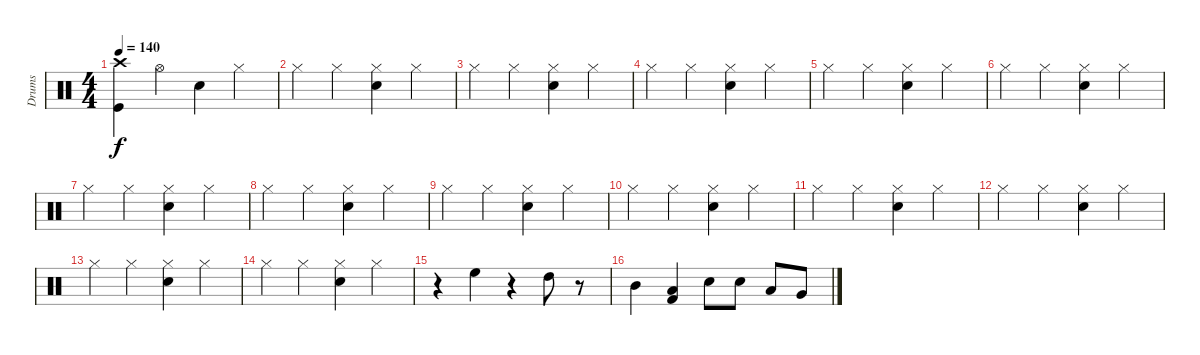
\track ("Drums" "Drums") {instrument percussion}
\staff {score}
\articulation defaults
\ts (4 4)
\tempo 140
\clef neutral
\ks c
("Kick (hit)" "Crash high (hit)").4{dy f} "Hi-Hat (open)".4 "Snare (hit) 2".4 "Hi-Hat (closed)".4 |
"Hi-Hat (closed)".4 "Hi-Hat (closed)".4 ("Hi-Hat (closed)" "Snare (hit) 2").4 "Hi-Hat (closed)".4 |
"Hi-Hat (closed)".4 "Hi-Hat (closed)".4 ("Hi-Hat (closed)" "Snare (hit) 2").4 "Hi-Hat (closed)".4 |
"Hi-Hat (closed)".4 "Hi-Hat (closed)".4 ("Hi-Hat (closed)" "Snare (hit) 2").4 "Hi-Hat (closed)".4 |
"Hi-Hat (closed)".4 "Hi-Hat (closed)".4 ("Hi-Hat (closed)" "Snare (hit) 2").4 "Hi-Hat (closed)".4 |
"Hi-Hat (closed)".4 "Hi-Hat (closed)".4 ("Hi-Hat (closed)" "Snare (hit) 2").4 "Hi-Hat (closed)".4 |
"Hi-Hat (closed)".4 "Hi-Hat (closed)".4 ("Hi-Hat (closed)" "Snare (hit) 2").4 "Hi-Hat (closed)".4 |
"Hi-Hat (closed)".4 "Hi-Hat (closed)".4 ("Hi-Hat (closed)" "Snare (hit) 2").4 "Hi-Hat (closed)".4 |
"Hi-Hat (closed)".4 "Hi-Hat (closed)".4 ("Hi-Hat (closed)" "Snare (hit) 2").4 "Hi-Hat (closed)".4 |
"Hi-Hat (closed)".4 "Hi-Hat (closed)".4 ("Hi-Hat (closed)" "Snare (hit) 2").4 "Hi-Hat (closed)".4 |
"Hi-Hat (closed)".4 "Hi-Hat (closed)".4 ("Hi-Hat (closed)" "Snare (hit) 2").4 "Hi-Hat (closed)".4 |
"Hi-Hat (closed)".4 "Hi-Hat (closed)".4 ("Hi-Hat (closed)" "Snare (hit) 2").4 "Hi-Hat (closed)".4 |
"Hi-Hat (closed)".4 "Hi-Hat (closed)".4 ("Hi-Hat (closed)" "Snare (hit) 2").4 "Hi-Hat (closed)".4 |
"Hi-Hat (closed)".4 "Hi-Hat (closed)".4 ("Hi-Hat (closed)" "Snare (hit) 2").4 "Hi-Hat (closed)".4 |
r.4 "High Floor Tom (hit)".4 r.4 "High Tom (hit)".8 r.8 |
"Mid Tom (hit)".4 ("Kick (hit) 2" "Low Tom (hit)").4 "Snare (hit) 2".8 "Snare (hit) 2".8 "Low Tom (hit)".8 "Very Low Tom (hit)".8
